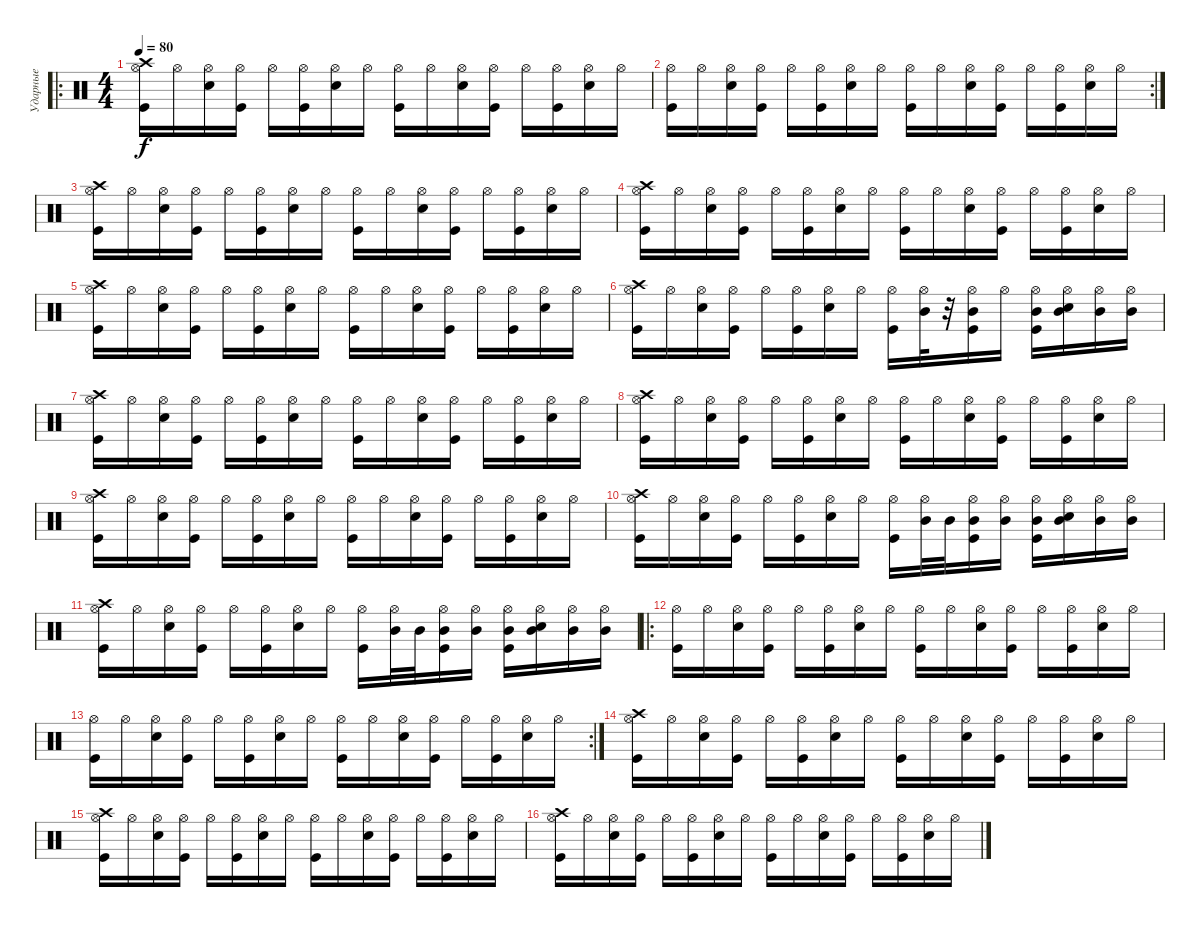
\track ("Ударные" "Ударные") {instrument percussion}
\staff {score}
\articulation defaults
\ro
\ts (4 4)
\tempo 80
\clef neutral
\ks c
("Kick (hit)" "Crash high (hit)" "Hi-Hat (open)").16{dy f} "Hi-Hat (open)".16 ("Electric Snare (hit)" "Hi-Hat (open)").16 ("Kick (hit)" "Hi-Hat (open)").16 "Hi-Hat (open)".16 ("Hi-Hat (open)" "Kick (hit)").16 ("Hi-Hat (open)" "Electric Snare (hit)").16 "Hi-Hat (open)".16 ("Kick (hit)" "Hi-Hat (open)").16 "Hi-Hat (open)".16 ("Electric Snare (hit)" "Hi-Hat (open)").16 ("Kick (hit)" "Hi-Hat (open)").16 "Hi-Hat (open)".16 ("Hi-Hat (open)" "Kick (hit)").16 ("Hi-Hat (open)" "Electric Snare (hit)").16 "Hi-Hat (open)".16 |
\rc 2
("Kick (hit)" "Hi-Hat (open)").16 "Hi-Hat (open)".16 ("Electric Snare (hit)" "Hi-Hat (open)").16 ("Kick (hit)" "Hi-Hat (open)").16 "Hi-Hat (open)".16 ("Hi-Hat (open)" "Kick (hit)").16 ("Hi-Hat (open)" "Electric Snare (hit)").16 "Hi-Hat (open)".16 ("Kick (hit)" "Hi-Hat (open)").16 "Hi-Hat (open)".16 ("Electric Snare (hit)" "Hi-Hat (open)").16 ("Kick (hit)" "Hi-Hat (open)").16 "Hi-Hat (open)".16 ("Hi-Hat (open)" "Kick (hit)").16 ("Hi-Hat (open)" "Electric Snare (hit)").16 "Hi-Hat (open)".16 |
("Kick (hit)" "Crash high (hit)" "Hi-Hat (open)").16 "Hi-Hat (open)".16 ("Electric Snare (hit)" "Hi-Hat (open)").16 ("Kick (hit)" "Hi-Hat (open)").16 "Hi-Hat (open)".16 ("Hi-Hat (open)" "Kick (hit)").16 ("Hi-Hat (open)" "Electric Snare (hit)").16 "Hi-Hat (open)".16 ("Kick (hit)" "Hi-Hat (open)").16 "Hi-Hat (open)".16 ("Electric Snare (hit)" "Hi-Hat (open)").16 ("Kick (hit)" "Hi-Hat (open)").16 "Hi-Hat (open)".16 ("Hi-Hat (open)" "Kick (hit)").16 ("Hi-Hat (open)" "Electric Snare (hit)").16 "Hi-Hat (open)".16 |
("Kick (hit)" "Crash high (hit)" "Hi-Hat (open)").16 "Hi-Hat (open)".16 ("Electric Snare (hit)" "Hi-Hat (open)").16 ("Kick (hit)" "Hi-Hat (open)").16 "Hi-Hat (open)".16 ("Hi-Hat (open)" "Kick (hit)").16 ("Hi-Hat (open)" "Electric Snare (hit)").16 "Hi-Hat (open)".16 ("Kick (hit)" "Hi-Hat (open)").16 "Hi-Hat (open)".16 ("Electric Snare (hit)" "Hi-Hat (open)").16 ("Kick (hit)" "Hi-Hat (open)").16 "Hi-Hat (open)".16 ("Hi-Hat (open)" "Kick (hit)").16 ("Hi-Hat (open)" "Electric Snare (hit)").16 "Hi-Hat (open)".16 |
("Kick (hit)" "Crash high (hit)" "Hi-Hat (open)").16 "Hi-Hat (open)".16 ("Electric Snare (hit)" "Hi-Hat (open)").16 ("Kick (hit)" "Hi-Hat (open)").16 "Hi-Hat (open)".16 ("Hi-Hat (open)" "Kick (hit)").16 ("Hi-Hat (open)" "Electric Snare (hit)").16 "Hi-Hat (open)".16 ("Kick (hit)" "Hi-Hat (open)").16 "Hi-Hat (open)".16 ("Electric Snare (hit)" "Hi-Hat (open)").16 ("Kick (hit)" "Hi-Hat (open)").16 "Hi-Hat (open)".16 ("Hi-Hat (open)" "Kick (hit)").16 ("Hi-Hat (open)" "Electric Snare (hit)").16 "Hi-Hat (open)".16 |
("Kick (hit)" "Crash high (hit)" "Hi-Hat (open)").16 "Hi-Hat (open)".16 ("Electric Snare (hit)" "Hi-Hat (open)").16 ("Kick (hit)" "Hi-Hat (open)").16 "Hi-Hat (open)".16 ("Hi-Hat (open)" "Kick (hit)").16 ("Hi-Hat (open)" "Electric Snare (hit)").16 "Hi-Hat (open)".16 ("Kick (hit)" "Hi-Hat (open)").16 ("Hi-Hat (open)" "Mid Tom (hit)").32 r.32 ("Kick (hit)" "Hi-Hat (open)" "Mid Tom (hit)").16 "Hi-Hat (open)".16 ("Hi-Hat (open)" "Kick (hit)" "Mid Tom (hit)").16 ("Hi-Hat (open)" "Electric Snare (hit)" "Mid Tom (hit)").16 ("Hi-Hat (open)" "Mid Tom (hit)").16 ("Hi-Hat (open)" "Mid Tom (hit)").16 |
("Kick (hit)" "Crash high (hit)" "Hi-Hat (open)").16 "Hi-Hat (open)".16 ("Electric Snare (hit)" "Hi-Hat (open)").16 ("Kick (hit)" "Hi-Hat (open)").16 "Hi-Hat (open)".16 ("Hi-Hat (open)" "Kick (hit)").16 ("Hi-Hat (open)" "Electric Snare (hit)").16 "Hi-Hat (open)".16 ("Kick (hit)" "Hi-Hat (open)").16 "Hi-Hat (open)".16 ("Electric Snare (hit)" "Hi-Hat (open)").16 ("Kick (hit)" "Hi-Hat (open)").16 "Hi-Hat (open)".16 ("Hi-Hat (open)" "Kick (hit)").16 ("Hi-Hat (open)" "Electric Snare (hit)").16 "Hi-Hat (open)".16 |
("Kick (hit)" "Crash high (hit)" "Hi-Hat (open)").16 "Hi-Hat (open)".16 ("Electric Snare (hit)" "Hi-Hat (open)").16 ("Kick (hit)" "Hi-Hat (open)").16 "Hi-Hat (open)".16 ("Hi-Hat (open)" "Kick (hit)").16 ("Hi-Hat (open)" "Electric Snare (hit)").16 "Hi-Hat (open)".16 ("Kick (hit)" "Hi-Hat (open)").16 "Hi-Hat (open)".16 ("Electric Snare (hit)" "Hi-Hat (open)").16 ("Kick (hit)" "Hi-Hat (open)").16 "Hi-Hat (open)".16 ("Hi-Hat (open)" "Kick (hit)").16 ("Hi-Hat (open)" "Electric Snare (hit)").16 "Hi-Hat (open)".16 |
("Kick (hit)" "Crash high (hit)" "Hi-Hat (open)").16 "Hi-Hat (open)".16 ("Electric Snare (hit)" "Hi-Hat (open)").16 ("Kick (hit)" "Hi-Hat (open)").16 "Hi-Hat (open)".16 ("Hi-Hat (open)" "Kick (hit)").16 ("Hi-Hat (open)" "Electric Snare (hit)").16 "Hi-Hat (open)".16 ("Kick (hit)" "Hi-Hat (open)").16 "Hi-Hat (open)".16 ("Electric Snare (hit)" "Hi-Hat (open)").16 ("Kick (hit)" "Hi-Hat (open)").16 "Hi-Hat (open)".16 ("Hi-Hat (open)" "Kick (hit)").16 ("Hi-Hat (open)" "Electric Snare (hit)").16 "Hi-Hat (open)".16 |
("Kick (hit)" "Crash high (hit)" "Hi-Hat (open)").16 "Hi-Hat (open)".16 ("Electric Snare (hit)" "Hi-Hat (open)").16 ("Kick (hit)" "Hi-Hat (open)").16 "Hi-Hat (open)".16 ("Hi-Hat (open)" "Kick (hit)").16 ("Hi-Hat (open)" "Electric Snare (hit)").16 "Hi-Hat (open)".16 ("Kick (hit)" "Hi-Hat (open)").16 ("Hi-Hat (open)" "Mid Tom (hit)").32 "Mid Tom (hit)".32 ("Kick (hit)" "Hi-Hat (open)" "Mid Tom (hit)").16 ("Hi-Hat (open)" "Mid Tom (hit)").16 ("Hi-Hat (open)" "Kick (hit)" "Mid Tom (hit)").16 ("Hi-Hat (open)" "Electric Snare (hit)" "Mid Tom (hit)").16 ("Hi-Hat (open)" "Mid Tom (hit)").16 ("Hi-Hat (open)" "Mid Tom (hit)").16 |
("Kick (hit)" "Crash high (hit)" "Hi-Hat (open)").16 "Hi-Hat (open)".16 ("Electric Snare (hit)" "Hi-Hat (open)").16 ("Kick (hit)" "Hi-Hat (open)").16 "Hi-Hat (open)".16 ("Hi-Hat (open)" "Kick (hit)").16 ("Hi-Hat (open)" "Electric Snare (hit)").16 "Hi-Hat (open)".16 ("Kick (hit)" "Hi-Hat (open)").16 ("Hi-Hat (open)" "Mid Tom (hit)").32 "Mid Tom (hit)".32 ("Kick (hit)" "Hi-Hat (open)" "Mid Tom (hit)").16 ("Hi-Hat (open)" "Mid Tom (hit)").16 ("Hi-Hat (open)" "Kick (hit)" "Mid Tom (hit)").16 ("Hi-Hat (open)" "Electric Snare (hit)" "Mid Tom (hit)").16 ("Hi-Hat (open)" "Mid Tom (hit)").16 ("Hi-Hat (open)" "Mid Tom (hit)").16 |
\ro
("Kick (hit)" "Hi-Hat (open)").16 "Hi-Hat (open)".16 ("Electric Snare (hit)" "Hi-Hat (open)").16 ("Kick (hit)" "Hi-Hat (open)").16 "Hi-Hat (open)".16 ("Hi-Hat (open)" "Kick (hit)").16 ("Hi-Hat (open)" "Electric Snare (hit)").16 "Hi-Hat (open)".16 ("Kick (hit)" "Hi-Hat (open)").16 "Hi-Hat (open)".16 ("Electric Snare (hit)" "Hi-Hat (open)").16 ("Kick (hit)" "Hi-Hat (open)").16 "Hi-Hat (open)".16 ("Hi-Hat (open)" "Kick (hit)").16 ("Hi-Hat (open)" "Electric Snare (hit)").16 "Hi-Hat (open)".16 |
\rc 2
("Kick (hit)" "Hi-Hat (open)").16 "Hi-Hat (open)".16 ("Electric Snare (hit)" "Hi-Hat (open)").16 ("Kick (hit)" "Hi-Hat (open)").16 "Hi-Hat (open)".16 ("Hi-Hat (open)" "Kick (hit)").16 ("Hi-Hat (open)" "Electric Snare (hit)").16 "Hi-Hat (open)".16 ("Kick (hit)" "Hi-Hat (open)").16 "Hi-Hat (open)".16 ("Electric Snare (hit)" "Hi-Hat (open)").16 ("Kick (hit)" "Hi-Hat (open)").16 "Hi-Hat (open)".16 ("Hi-Hat (open)" "Kick (hit)").16 ("Hi-Hat (open)" "Electric Snare (hit)").16 "Hi-Hat (open)".16 |
("Kick (hit)" "Crash high (hit)" "Hi-Hat (open)").16 "Hi-Hat (open)".16 ("Electric Snare (hit)" "Hi-Hat (open)").16 ("Kick (hit)" "Hi-Hat (open)").16 "Hi-Hat (open)".16 ("Hi-Hat (open)" "Kick (hit)").16 ("Hi-Hat (open)" "Electric Snare (hit)").16 "Hi-Hat (open)".16 ("Kick (hit)" "Hi-Hat (open)").16 "Hi-Hat (open)".16 ("Electric Snare (hit)" "Hi-Hat (open)").16 ("Kick (hit)" "Hi-Hat (open)").16 "Hi-Hat (open)".16 ("Hi-Hat (open)" "Kick (hit)").16 ("Hi-Hat (open)" "Electric Snare (hit)").16 "Hi-Hat (open)".16 |
("Kick (hit)" "Crash high (hit)" "Hi-Hat (open)").16 "Hi-Hat (open)".16 ("Electric Snare (hit)" "Hi-Hat (open)").16 ("Kick (hit)" "Hi-Hat (open)").16 "Hi-Hat (open)".16 ("Hi-Hat (open)" "Kick (hit)").16 ("Hi-Hat (open)" "Electric Snare (hit)").16 "Hi-Hat (open)".16 ("Kick (hit)" "Hi-Hat (open)").16 "Hi-Hat (open)".16 ("Electric Snare (hit)" "Hi-Hat (open)").16 ("Kick (hit)" "Hi-Hat (open)").16 "Hi-Hat (open)".16 ("Hi-Hat (open)" "Kick (hit)").16 ("Hi-Hat (open)" "Electric Snare (hit)").16 "Hi-Hat (open)".16 |
("Kick (hit)" "Crash high (hit)" "Hi-Hat (open)").16 "Hi-Hat (open)".16 ("Electric Snare (hit)" "Hi-Hat (open)").16 ("Kick (hit)" "Hi-Hat (open)").16 "Hi-Hat (open)".16 ("Hi-Hat (open)" "Kick (hit)").16 ("Hi-Hat (open)" "Electric Snare (hit)").16 "Hi-Hat (open)".16 ("Kick (hit)" "Hi-Hat (open)").16 "Hi-Hat (open)".16 ("Electric Snare (hit)" "Hi-Hat (open)").16 ("Kick (hit)" "Hi-Hat (open)").16 "Hi-Hat (open)".16 ("Hi-Hat (open)" "Kick (hit)").16 ("Hi-Hat (open)" "Electric Snare (hit)").16 "Hi-Hat (open)".16
